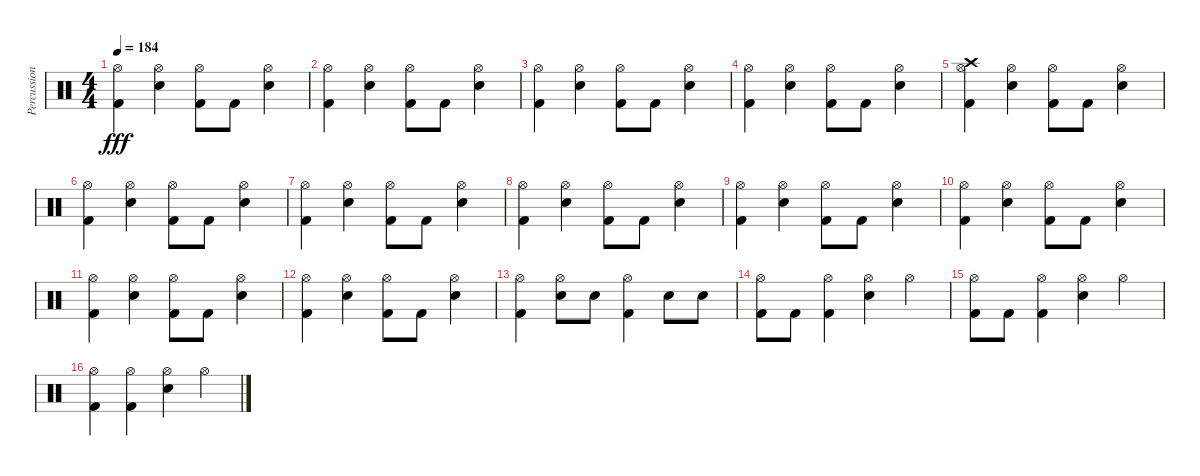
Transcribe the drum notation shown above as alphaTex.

\track ("Percussion" "Percussion") {instrument percussion}
\staff {score}
\articulation defaults
\ts (4 4)
\tempo 184
\clef neutral
\ks c
("Hi-Hat (open)" "Kick (hit) 2").4{dy fff} ("Hi-Hat (open)" "Snare (hit) 2").4 ("Hi-Hat (open)" "Kick (hit) 2").8 "Kick (hit) 2".8 ("Hi-Hat (open)" "Snare (hit) 2").4 |
("Hi-Hat (open)" "Kick (hit) 2").4 ("Hi-Hat (open)" "Snare (hit) 2").4 ("Hi-Hat (open)" "Kick (hit) 2").8 "Kick (hit) 2".8 ("Hi-Hat (open)" "Snare (hit) 2").4 |
("Hi-Hat (open)" "Kick (hit) 2").4 ("Hi-Hat (open)" "Snare (hit) 2").4 ("Hi-Hat (open)" "Kick (hit) 2").8 "Kick (hit) 2".8 ("Hi-Hat (open)" "Snare (hit) 2").4 |
("Hi-Hat (open)" "Kick (hit) 2").4 ("Hi-Hat (open)" "Snare (hit) 2").4 ("Hi-Hat (open)" "Kick (hit) 2").8 "Kick (hit) 2".8 ("Hi-Hat (open)" "Snare (hit) 2").4 |
("Crash high (hit)" "Hi-Hat (open)" "Kick (hit) 2").4 ("Hi-Hat (open)" "Snare (hit) 2").4 ("Hi-Hat (open)" "Kick (hit) 2").8 "Kick (hit) 2".8 ("Hi-Hat (open)" "Snare (hit) 2").4 |
("Hi-Hat (open)" "Kick (hit) 2").4 ("Hi-Hat (open)" "Snare (hit) 2").4 ("Hi-Hat (open)" "Kick (hit) 2").8 "Kick (hit) 2".8 ("Hi-Hat (open)" "Snare (hit) 2").4 |
("Hi-Hat (open)" "Kick (hit) 2").4 ("Hi-Hat (open)" "Snare (hit) 2").4 ("Hi-Hat (open)" "Kick (hit) 2").8 "Kick (hit) 2".8 ("Hi-Hat (open)" "Snare (hit) 2").4 |
("Hi-Hat (open)" "Kick (hit) 2").4 ("Hi-Hat (open)" "Snare (hit) 2").4 ("Hi-Hat (open)" "Kick (hit) 2").8 "Kick (hit) 2".8 ("Hi-Hat (open)" "Snare (hit) 2").4 |
("Hi-Hat (open)" "Kick (hit) 2").4 ("Hi-Hat (open)" "Snare (hit) 2").4 ("Hi-Hat (open)" "Kick (hit) 2").8 "Kick (hit) 2".8 ("Hi-Hat (open)" "Snare (hit) 2").4 |
("Hi-Hat (open)" "Kick (hit) 2").4 ("Hi-Hat (open)" "Snare (hit) 2").4 ("Hi-Hat (open)" "Kick (hit) 2").8 "Kick (hit) 2".8 ("Hi-Hat (open)" "Snare (hit) 2").4 |
("Hi-Hat (open)" "Kick (hit) 2").4 ("Hi-Hat (open)" "Snare (hit) 2").4 ("Hi-Hat (open)" "Kick (hit) 2").8 "Kick (hit) 2".8 ("Hi-Hat (open)" "Snare (hit) 2").4 |
("Hi-Hat (open)" "Kick (hit) 2").4 ("Hi-Hat (open)" "Snare (hit) 2").4 ("Hi-Hat (open)" "Kick (hit) 2").8 "Kick (hit) 2".8 ("Hi-Hat (open)" "Snare (hit) 2").4 |
("Hi-Hat (open)" "Kick (hit) 2").4 ("Hi-Hat (open)" "Snare (hit) 2").8 "Snare (hit) 2".8 ("Hi-Hat (open)" "Kick (hit) 2").4 "Snare (hit) 2".8 "Snare (hit) 2".8 |
("Hi-Hat (open)" "Kick (hit) 2").8 "Kick (hit) 2".8 ("Hi-Hat (open)" "Kick (hit) 2").4 ("Hi-Hat (open)" "Snare (hit) 2").4 "Hi-Hat (open)".4 |
("Hi-Hat (open)" "Kick (hit) 2").8 "Kick (hit) 2".8 ("Hi-Hat (open)" "Kick (hit) 2").4 ("Hi-Hat (open)" "Snare (hit) 2").4 "Hi-Hat (open)".4 |
("Hi-Hat (open)" "Kick (hit) 2").4 ("Hi-Hat (open)" "Kick (hit) 2").4 ("Hi-Hat (open)" "Snare (hit) 2").4 "Hi-Hat (open)".4
